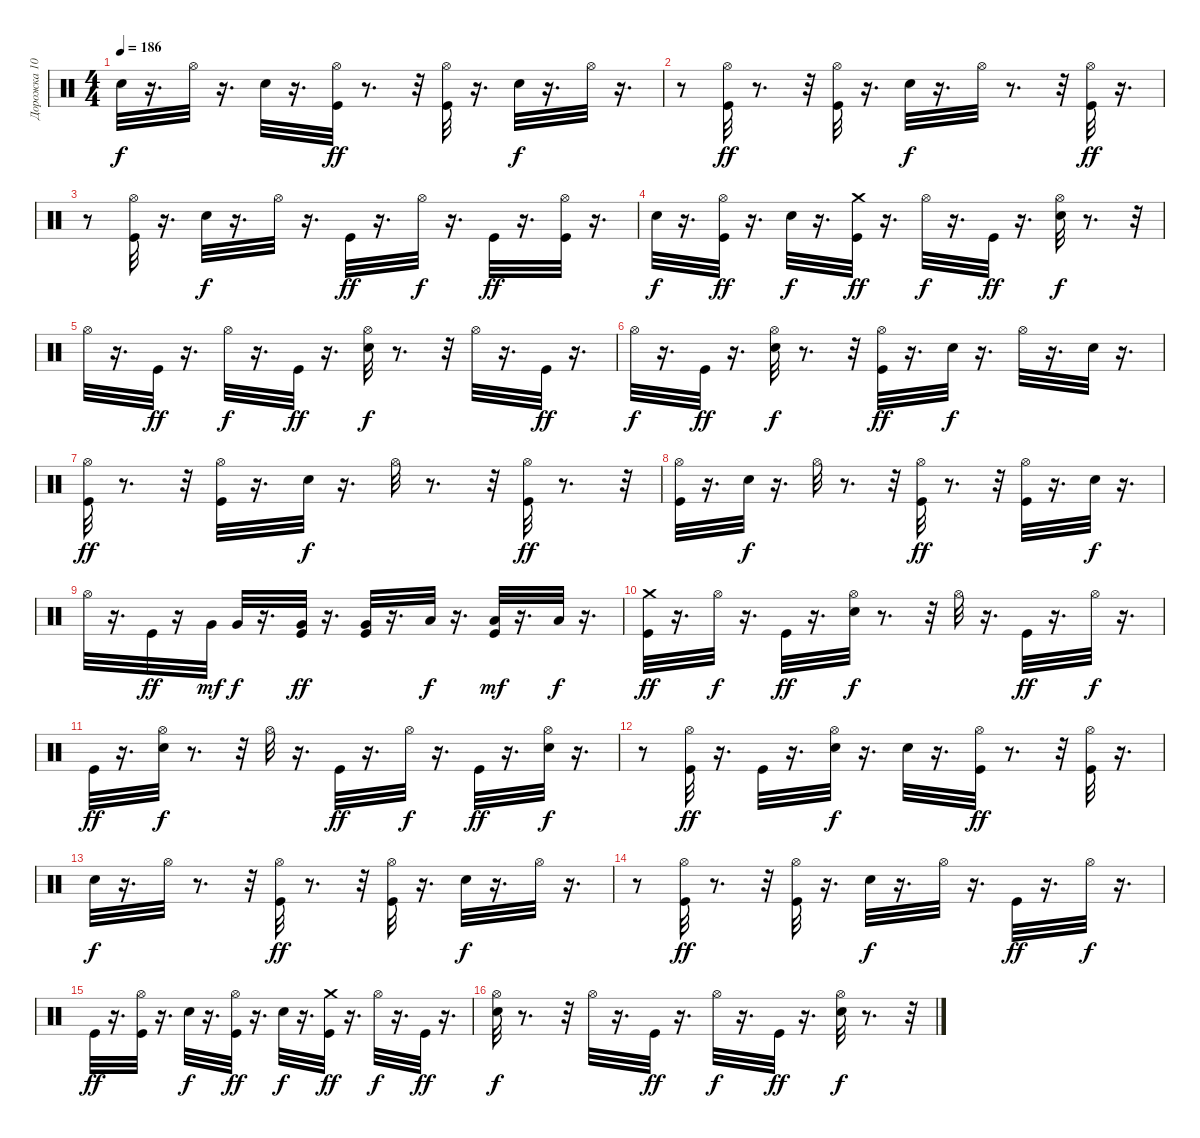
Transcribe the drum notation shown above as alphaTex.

\track ("Дорожка 10" "Дорожка 10") {instrument percussion}
\staff {score}
\articulation defaults
\ts (4 4)
\tempo 186
\clef neutral
\ks c "Electric Snare (hit)".32{dy f}
r.16{d} "Hi-Hat (open)".32 r.16{d} "Electric Snare (hit)".32 r.16{d} ("Kick (hit)" "Hi-Hat (open)").32{dy ff} r.8{d} r.32 ("Kick (hit)" "Hi-Hat (open)").32 r.16{d} "Electric Snare (hit)".32{dy f} r.16{d} "Hi-Hat (open)".32 r.16{d} |
r.8 ("Kick (hit)" "Hi-Hat (open)").32{dy ff} r.8{d} r.32 ("Kick (hit)" "Hi-Hat (open)").32 r.16{d} "Electric Snare (hit)".32{dy f} r.16{d} "Hi-Hat (open)".32 r.8{d} r.32 ("Kick (hit)" "Hi-Hat (open)").32{dy ff} r.16{d} |
r.8 ("Kick (hit)" "Hi-Hat (open)").32 r.16{d} "Electric Snare (hit)".32{dy f} r.16{d} "Hi-Hat (open)".32 r.16{d} "Kick (hit)".32{dy ff} r.16{d} "Hi-Hat (open)".32{dy f} r.16{d} "Kick (hit)".32{dy ff} r.16{d} ("Kick (hit)" "Hi-Hat (open)").32 r.16{d} |
"Electric Snare (hit)".32{dy f} r.16{d} ("Kick (hit)" "Hi-Hat (open)").32{dy ff} r.16{d} "Electric Snare (hit)".32{dy f} r.16{d} ("Kick (hit)" "Crash medium (hit)").32{dy ff} r.16{d} "Hi-Hat (open)".32{dy f} r.16{d} "Kick (hit)".32{dy ff} r.16{d} ("Hi-Hat (open)" "Electric Snare (hit)").32{dy f} r.8{d} r.32 |
"Hi-Hat (open)".32 r.16{d} "Kick (hit)".32{dy ff} r.16{d} "Hi-Hat (open)".32{dy f} r.16{d} "Kick (hit)".32{dy ff} r.16{d} ("Electric Snare (hit)" "Hi-Hat (open)").32{dy f} r.8{d} r.32 "Hi-Hat (open)".32 r.16{d} "Kick (hit)".32{dy ff} r.16{d} |
"Hi-Hat (open)".32{dy f} r.16{d} "Kick (hit)".32{dy ff} r.16{d} ("Electric Snare (hit)" "Hi-Hat (open)").32{dy f} r.8{d} r.32 ("Kick (hit)" "Hi-Hat (open)").32{dy ff} r.16{d} "Electric Snare (hit)".32{dy f} r.16{d} "Hi-Hat (open)".32 r.16{d} "Electric Snare (hit)".32 r.16{d} |
("Kick (hit)" "Hi-Hat (open)").32{dy ff} r.8{d} r.32 ("Kick (hit)" "Hi-Hat (open)").32 r.16{d} "Electric Snare (hit)".32{dy f} r.16{d} "Hi-Hat (open)".32 r.8{d} r.32 ("Kick (hit)" "Hi-Hat (open)").32{dy ff} r.8{d} r.32 |
("Kick (hit)" "Hi-Hat (open)").32 r.16{d} "Electric Snare (hit)".32{dy f} r.16{d} "Hi-Hat (open)".32 r.8{d} r.32 ("Kick (hit)" "Hi-Hat (open)").32{dy ff} r.8{d} r.32 ("Kick (hit)" "Hi-Hat (open)").32 r.16{d} "Electric Snare (hit)".32{dy f} r.16{d} |
"Hi-Hat (open)".32 r.16{d} "Kick (hit)".32{dy ff} r.16 "Very Low Tom (hit)".32{dy mf} "Very Low Tom (hit)".32{dy f} r.16{d} ("Kick (hit)" "Very Low Tom (hit)").32{dy ff} r.16{d} ("Kick (hit)" "Very Low Tom (hit)").32 r.16{d} "Low Floor Tom (hit)".32{dy f} r.16{d} ("Kick (hit)" "Low Floor Tom (hit)").32{dy mf} r.16{d} "Low Floor Tom (hit)".32{dy f} r.16{d} |
("Crash medium (hit)" "Kick (hit)").32{dy ff} r.16{d} "Hi-Hat (open)".32{dy f} r.16{d} "Kick (hit)".32{dy ff} r.16{d} ("Hi-Hat (open)" "Electric Snare (hit)").32{dy f} r.8{d} r.32 "Hi-Hat (open)".32 r.16{d} "Kick (hit)".32{dy ff} r.16{d} "Hi-Hat (open)".32{dy f} r.16{d} |
"Kick (hit)".32{dy ff} r.16{d} ("Electric Snare (hit)" "Hi-Hat (open)").32{dy f} r.8{d} r.32 "Hi-Hat (open)".32 r.16{d} "Kick (hit)".32{dy ff} r.16{d} "Hi-Hat (open)".32{dy f} r.16{d} "Kick (hit)".32{dy ff} r.16{d} ("Hi-Hat (open)" "Electric Snare (hit)").32{dy f} r.16{d} |
r.8 ("Hi-Hat (open)" "Kick (hit)").32{dy ff} r.16{d} "Kick (hit)".32 r.16{d} ("Hi-Hat (open)" "Electric Snare (hit)").32{dy f} r.16{d} "Electric Snare (hit)".32 r.16{d} ("Kick (hit)" "Hi-Hat (open)").32{dy ff} r.8{d} r.32 ("Kick (hit)" "Hi-Hat (open)").32 r.16{d} |
"Electric Snare (hit)".32{dy f} r.16{d} "Hi-Hat (open)".32 r.8{d} r.32 ("Hi-Hat (open)" "Kick (hit)").32{dy ff} r.8{d} r.32 ("Hi-Hat (open)" "Kick (hit)").32 r.16{d} "Electric Snare (hit)".32{dy f} r.16{d} "Hi-Hat (open)".32 r.16{d} |
r.8 ("Kick (hit)" "Hi-Hat (open)").32{dy ff} r.8{d} r.32 ("Hi-Hat (open)" "Kick (hit)").32 r.16{d} "Electric Snare (hit)".32{dy f} r.16{d} "Hi-Hat (open)".32 r.16{d} "Kick (hit)".32{dy ff} r.16{d} "Hi-Hat (open)".32{dy f} r.16{d} |
"Kick (hit)".32{dy ff} r.16{d} ("Hi-Hat (open)" "Kick (hit)").32 r.16{d} "Electric Snare (hit)".32{dy f} r.16{d} ("Kick (hit)" "Hi-Hat (open)").32{dy ff} r.16{d} "Electric Snare (hit)".32{dy f} r.16{d} ("Kick (hit)" "Crash medium (hit)").32{dy ff} r.16{d} "Hi-Hat (open)".32{dy f} r.16{d} "Kick (hit)".32{dy ff} r.16{d} |
("Hi-Hat (open)" "Electric Snare (hit)").32{dy f} r.8{d} r.32 "Hi-Hat (open)".32 r.16{d} "Kick (hit)".32{dy ff} r.16{d} "Hi-Hat (open)".32{dy f} r.16{d} "Kick (hit)".32{dy ff} r.16{d} ("Electric Snare (hit)" "Hi-Hat (open)").32{dy f} r.8{d} r.32
